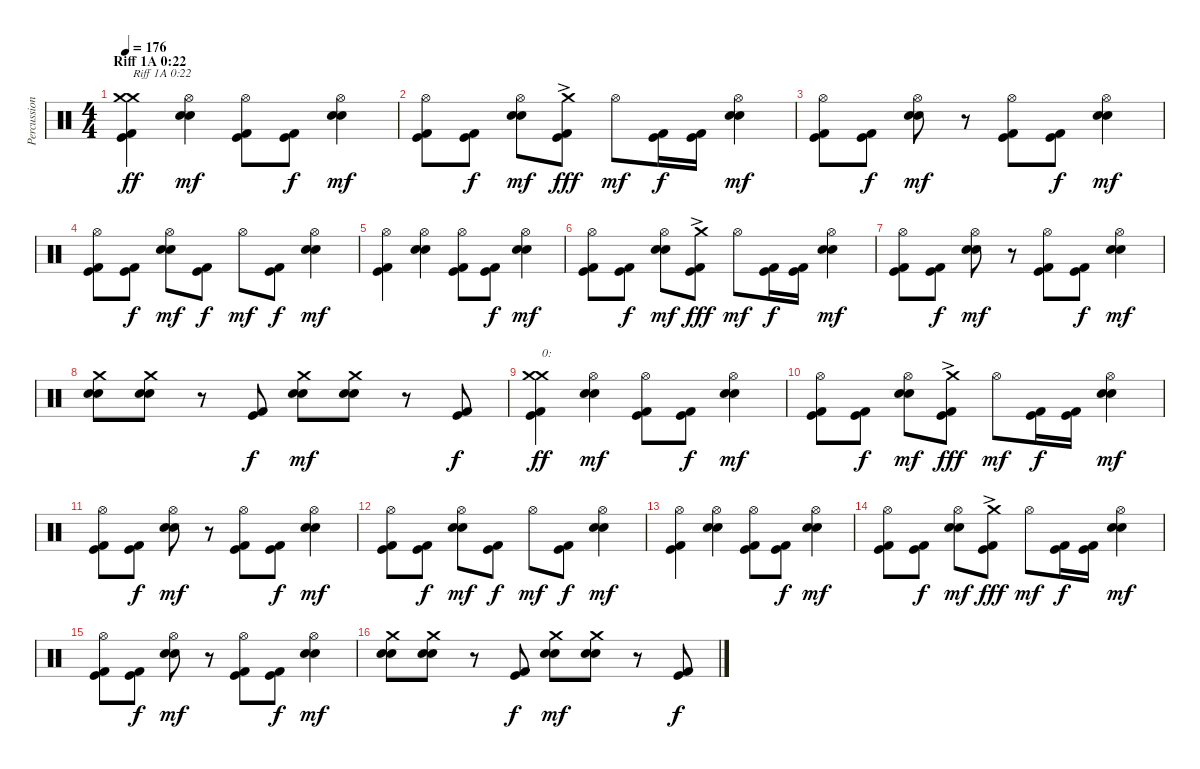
\track ("Percussion" "Percussion") {instrument percussion}
\staff {score}
\articulation defaults
\ts (4 4)
\section ("" "Riff 1A 0:22")
\tempo 176
\clef neutral
\ks c
("Kick (hit) 2" "Kick (hit)" "Crash medium (hit)" "Crash medium (hit)").4{txt "Riff 1A 0:22" dy ff} ("Electric Snare (hit)" "Snare (hit) 2" "Hi-Hat (open)").4{dy mf} ("Kick (hit) 2" "Kick (hit)" "Hi-Hat (open)").8 ("Kick (hit) 2" "Kick (hit)").8{dy f} ("Electric Snare (hit)" "Snare (hit) 2" "Hi-Hat (open)").4{dy mf} |
("Kick (hit) 2" "Kick (hit)" "Hi-Hat (open)").8 ("Kick (hit) 2" "Kick (hit)").8{dy f} ("Electric Snare (hit)" "Snare (hit) 2" "Hi-Hat (open)").8{dy mf} ("Kick (hit) 2" "Kick (hit)" "Crash medium (hit)"{ac}).8{dy fff} "Hi-Hat (open)".8{dy mf} ("Kick (hit) 2" "Kick (hit)").16{dy f} ("Kick (hit) 2" "Kick (hit)").16 ("Electric Snare (hit)" "Snare (hit) 2" "Hi-Hat (open)").4{dy mf} |
("Kick (hit) 2" "Kick (hit)" "Hi-Hat (open)").8 ("Kick (hit) 2" "Kick (hit)").8{dy f} ("Electric Snare (hit)" "Snare (hit) 2" "Hi-Hat (open)").8{dy mf} r.8 ("Kick (hit) 2" "Kick (hit)" "Hi-Hat (open)").8 ("Kick (hit) 2" "Kick (hit)").8{dy f} ("Electric Snare (hit)" "Snare (hit) 2" "Hi-Hat (open)").4{dy mf} |
("Kick (hit) 2" "Kick (hit)" "Hi-Hat (open)").8 ("Kick (hit) 2" "Kick (hit)").8{dy f} ("Electric Snare (hit)" "Snare (hit) 2" "Hi-Hat (open)").8{dy mf} ("Kick (hit) 2" "Kick (hit)").8{dy f} "Hi-Hat (open)".8{dy mf} ("Kick (hit) 2" "Kick (hit)").8{dy f} ("Electric Snare (hit)" "Snare (hit) 2" "Hi-Hat (open)").4{dy mf} |
("Kick (hit) 2" "Kick (hit)" "Hi-Hat (open)").4 ("Electric Snare (hit)" "Snare (hit) 2" "Hi-Hat (open)").4 ("Kick (hit) 2" "Kick (hit)" "Hi-Hat (open)").8 ("Kick (hit) 2" "Kick (hit)").8{dy f} ("Electric Snare (hit)" "Snare (hit) 2" "Hi-Hat (open)").4{dy mf} |
("Kick (hit) 2" "Kick (hit)" "Hi-Hat (open)").8 ("Kick (hit) 2" "Kick (hit)").8{dy f} ("Electric Snare (hit)" "Snare (hit) 2" "Hi-Hat (open)").8{dy mf} ("Kick (hit) 2" "Kick (hit)" "Crash medium (hit)"{ac}).8{dy fff} "Hi-Hat (open)".8{dy mf} ("Kick (hit) 2" "Kick (hit)").16{dy f} ("Kick (hit) 2" "Kick (hit)").16 ("Electric Snare (hit)" "Snare (hit) 2" "Hi-Hat (open)").4{dy mf} |
("Kick (hit) 2" "Kick (hit)" "Hi-Hat (open)").8 ("Kick (hit) 2" "Kick (hit)").8{dy f} ("Electric Snare (hit)" "Snare (hit) 2" "Hi-Hat (open)").8{dy mf} r.8 ("Kick (hit) 2" "Kick (hit)" "Hi-Hat (open)").8 ("Kick (hit) 2" "Kick (hit)").8{dy f} ("Electric Snare (hit)" "Snare (hit) 2" "Hi-Hat (open)").4{dy mf} |
("Electric Snare (hit)" "Snare (hit) 2" "Crash medium (hit)").8 ("Electric Snare (hit)" "Snare (hit) 2" "Crash medium (hit)").8 r.8 ("Kick (hit) 2" "Kick (hit)").8{dy f} ("Electric Snare (hit)" "Snare (hit) 2" "Crash medium (hit)").8{dy mf} ("Electric Snare (hit)" "Snare (hit) 2" "Crash medium (hit)").8 r.8 ("Kick (hit) 2" "Kick (hit)").8{dy f} |
("Kick (hit) 2" "Kick (hit)" "Crash medium (hit)" "Crash medium (hit)").4{txt "0:" dy ff} ("Electric Snare (hit)" "Snare (hit) 2" "Hi-Hat (open)").4{dy mf} ("Kick (hit) 2" "Kick (hit)" "Hi-Hat (open)").8 ("Kick (hit) 2" "Kick (hit)").8{dy f} ("Electric Snare (hit)" "Snare (hit) 2" "Hi-Hat (open)").4{dy mf} |
("Kick (hit) 2" "Kick (hit)" "Hi-Hat (open)").8 ("Kick (hit) 2" "Kick (hit)").8{dy f} ("Electric Snare (hit)" "Snare (hit) 2" "Hi-Hat (open)").8{dy mf} ("Kick (hit) 2" "Kick (hit)" "Crash medium (hit)"{ac}).8{dy fff} "Hi-Hat (open)".8{dy mf} ("Kick (hit) 2" "Kick (hit)").16{dy f} ("Kick (hit) 2" "Kick (hit)").16 ("Electric Snare (hit)" "Snare (hit) 2" "Hi-Hat (open)").4{dy mf} |
("Kick (hit) 2" "Kick (hit)" "Hi-Hat (open)").8 ("Kick (hit) 2" "Kick (hit)").8{dy f} ("Electric Snare (hit)" "Snare (hit) 2" "Hi-Hat (open)").8{dy mf} r.8 ("Kick (hit) 2" "Kick (hit)" "Hi-Hat (open)").8 ("Kick (hit) 2" "Kick (hit)").8{dy f} ("Electric Snare (hit)" "Snare (hit) 2" "Hi-Hat (open)").4{dy mf} |
("Kick (hit) 2" "Kick (hit)" "Hi-Hat (open)").8 ("Kick (hit) 2" "Kick (hit)").8{dy f} ("Electric Snare (hit)" "Snare (hit) 2" "Hi-Hat (open)").8{dy mf} ("Kick (hit) 2" "Kick (hit)").8{dy f} "Hi-Hat (open)".8{dy mf} ("Kick (hit) 2" "Kick (hit)").8{dy f} ("Electric Snare (hit)" "Snare (hit) 2" "Hi-Hat (open)").4{dy mf} |
("Kick (hit) 2" "Kick (hit)" "Hi-Hat (open)").4 ("Electric Snare (hit)" "Snare (hit) 2" "Hi-Hat (open)").4 ("Kick (hit) 2" "Kick (hit)" "Hi-Hat (open)").8 ("Kick (hit) 2" "Kick (hit)").8{dy f} ("Electric Snare (hit)" "Snare (hit) 2" "Hi-Hat (open)").4{dy mf} |
("Kick (hit) 2" "Kick (hit)" "Hi-Hat (open)").8 ("Kick (hit) 2" "Kick (hit)").8{dy f} ("Electric Snare (hit)" "Snare (hit) 2" "Hi-Hat (open)").8{dy mf} ("Kick (hit) 2" "Kick (hit)" "Crash medium (hit)"{ac}).8{dy fff} "Hi-Hat (open)".8{dy mf} ("Kick (hit) 2" "Kick (hit)").16{dy f} ("Kick (hit) 2" "Kick (hit)").16 ("Electric Snare (hit)" "Snare (hit) 2" "Hi-Hat (open)").4{dy mf} |
("Kick (hit) 2" "Kick (hit)" "Hi-Hat (open)").8 ("Kick (hit) 2" "Kick (hit)").8{dy f} ("Electric Snare (hit)" "Snare (hit) 2" "Hi-Hat (open)").8{dy mf} r.8 ("Kick (hit) 2" "Kick (hit)" "Hi-Hat (open)").8 ("Kick (hit) 2" "Kick (hit)").8{dy f} ("Electric Snare (hit)" "Snare (hit) 2" "Hi-Hat (open)").4{dy mf} |
("Electric Snare (hit)" "Snare (hit) 2" "Crash medium (hit)").8 ("Electric Snare (hit)" "Snare (hit) 2" "Crash medium (hit)").8 r.8 ("Kick (hit) 2" "Kick (hit)").8{dy f} ("Electric Snare (hit)" "Snare (hit) 2" "Crash medium (hit)").8{dy mf} ("Electric Snare (hit)" "Snare (hit) 2" "Crash medium (hit)").8 r.8 ("Kick (hit) 2" "Kick (hit)").8{dy f}
